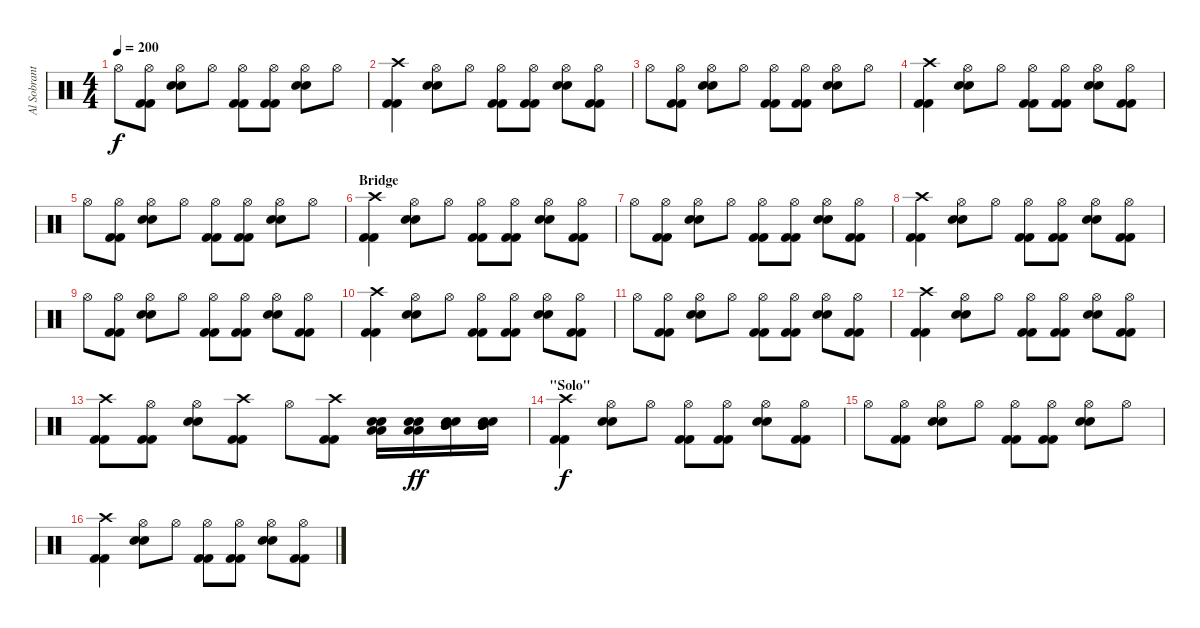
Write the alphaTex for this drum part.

\track ("Al Sobrante (Drums)" "Al Sobrant") {instrument percussion}
\staff {score}
\articulation defaults
\ts (4 4)
\tempo 200
\clef neutral
\ks c "Hi-Hat (open)".8{dy f}
("Kick (hit) 2" "Kick (hit) 2" "Hi-Hat (open)").8 ("Electric Snare (hit)" "Electric Snare (hit)" "Hi-Hat (open)").8 "Hi-Hat (open)".8 ("Kick (hit) 2" "Kick (hit) 2" "Hi-Hat (open)").8 ("Kick (hit) 2" "Kick (hit) 2" "Hi-Hat (open)").8 ("Electric Snare (hit)" "Electric Snare (hit)" "Hi-Hat (open)").8 "Hi-Hat (open)".8 |
("Kick (hit) 2" "Kick (hit) 2" "Crash high (hit)").4 ("Electric Snare (hit)" "Electric Snare (hit)" "Hi-Hat (open)").8 "Hi-Hat (open)".8 ("Kick (hit) 2" "Kick (hit) 2" "Hi-Hat (open)").8 ("Kick (hit) 2" "Kick (hit) 2" "Hi-Hat (open)").8 ("Electric Snare (hit)" "Electric Snare (hit)" "Hi-Hat (open)").8 ("Kick (hit) 2" "Kick (hit) 2" "Hi-Hat (open)").8 |
"Hi-Hat (open)".8 ("Kick (hit) 2" "Kick (hit) 2" "Hi-Hat (open)").8 ("Electric Snare (hit)" "Electric Snare (hit)" "Hi-Hat (open)").8 "Hi-Hat (open)".8 ("Kick (hit) 2" "Kick (hit) 2" "Hi-Hat (open)").8 ("Kick (hit) 2" "Kick (hit) 2" "Hi-Hat (open)").8 ("Electric Snare (hit)" "Electric Snare (hit)" "Hi-Hat (open)").8 "Hi-Hat (open)".8 |
("Kick (hit) 2" "Kick (hit) 2" "Crash high (hit)").4 ("Electric Snare (hit)" "Electric Snare (hit)" "Hi-Hat (open)").8 "Hi-Hat (open)".8 ("Kick (hit) 2" "Kick (hit) 2" "Hi-Hat (open)").8 ("Kick (hit) 2" "Kick (hit) 2" "Hi-Hat (open)").8 ("Electric Snare (hit)" "Electric Snare (hit)" "Hi-Hat (open)").8 ("Kick (hit) 2" "Kick (hit) 2" "Hi-Hat (open)").8 |
"Hi-Hat (open)".8 ("Kick (hit) 2" "Kick (hit) 2" "Hi-Hat (open)").8 ("Electric Snare (hit)" "Electric Snare (hit)" "Hi-Hat (open)").8 "Hi-Hat (open)".8 ("Kick (hit) 2" "Kick (hit) 2" "Hi-Hat (open)").8 ("Kick (hit) 2" "Kick (hit) 2" "Hi-Hat (open)").8 ("Electric Snare (hit)" "Electric Snare (hit)" "Hi-Hat (open)").8 "Hi-Hat (open)".8 |
\section ("" "Bridge")
("Kick (hit) 2" "Kick (hit) 2" "Crash high (hit)").4 ("Electric Snare (hit)" "Electric Snare (hit)" "Hi-Hat (open)").8 "Hi-Hat (open)".8 ("Kick (hit) 2" "Kick (hit) 2" "Hi-Hat (open)").8 ("Kick (hit) 2" "Kick (hit) 2" "Hi-Hat (open)").8 ("Electric Snare (hit)" "Electric Snare (hit)" "Hi-Hat (open)").8 ("Kick (hit) 2" "Kick (hit) 2" "Hi-Hat (open)").8 |
"Hi-Hat (open)".8 ("Kick (hit) 2" "Kick (hit) 2" "Hi-Hat (open)").8 ("Electric Snare (hit)" "Electric Snare (hit)" "Hi-Hat (open)").8 "Hi-Hat (open)".8 ("Kick (hit) 2" "Kick (hit) 2" "Hi-Hat (open)").8 ("Kick (hit) 2" "Kick (hit) 2" "Hi-Hat (open)").8 ("Electric Snare (hit)" "Electric Snare (hit)" "Hi-Hat (open)").8 ("Kick (hit) 2" "Kick (hit) 2" "Hi-Hat (open)").8 |
("Kick (hit) 2" "Kick (hit) 2" "Crash high (hit)").4 ("Electric Snare (hit)" "Electric Snare (hit)" "Hi-Hat (open)").8 "Hi-Hat (open)".8 ("Kick (hit) 2" "Kick (hit) 2" "Hi-Hat (open)").8 ("Kick (hit) 2" "Kick (hit) 2" "Hi-Hat (open)").8 ("Electric Snare (hit)" "Electric Snare (hit)" "Hi-Hat (open)").8 ("Kick (hit) 2" "Kick (hit) 2" "Hi-Hat (open)").8 |
"Hi-Hat (open)".8 ("Kick (hit) 2" "Kick (hit) 2" "Hi-Hat (open)").8 ("Electric Snare (hit)" "Electric Snare (hit)" "Hi-Hat (open)").8 "Hi-Hat (open)".8 ("Kick (hit) 2" "Kick (hit) 2" "Hi-Hat (open)").8 ("Kick (hit) 2" "Kick (hit) 2" "Hi-Hat (open)").8 ("Electric Snare (hit)" "Electric Snare (hit)" "Hi-Hat (open)").8 ("Kick (hit) 2" "Kick (hit) 2" "Hi-Hat (open)").8 |
("Kick (hit) 2" "Kick (hit) 2" "Crash high (hit)").4 ("Electric Snare (hit)" "Electric Snare (hit)" "Hi-Hat (open)").8 "Hi-Hat (open)".8 ("Kick (hit) 2" "Kick (hit) 2" "Hi-Hat (open)").8 ("Kick (hit) 2" "Kick (hit) 2" "Hi-Hat (open)").8 ("Electric Snare (hit)" "Electric Snare (hit)" "Hi-Hat (open)").8 ("Kick (hit) 2" "Kick (hit) 2" "Hi-Hat (open)").8 |
"Hi-Hat (open)".8 ("Kick (hit) 2" "Kick (hit) 2" "Hi-Hat (open)").8 ("Electric Snare (hit)" "Electric Snare (hit)" "Hi-Hat (open)").8 "Hi-Hat (open)".8 ("Kick (hit) 2" "Kick (hit) 2" "Hi-Hat (open)").8 ("Kick (hit) 2" "Kick (hit) 2" "Hi-Hat (open)").8 ("Electric Snare (hit)" "Electric Snare (hit)" "Hi-Hat (open)").8 ("Kick (hit) 2" "Kick (hit) 2" "Hi-Hat (open)").8 |
("Kick (hit) 2" "Kick (hit) 2" "Crash high (hit)").4 ("Electric Snare (hit)" "Electric Snare (hit)" "Hi-Hat (open)").8 "Hi-Hat (open)".8 ("Kick (hit) 2" "Kick (hit) 2" "Hi-Hat (open)").8 ("Kick (hit) 2" "Kick (hit) 2" "Hi-Hat (open)").8 ("Electric Snare (hit)" "Electric Snare (hit)" "Hi-Hat (open)").8 ("Kick (hit) 2" "Kick (hit) 2" "Hi-Hat (open)").8 |
("Kick (hit) 2" "Kick (hit) 2" "Crash high (hit)").8 ("Kick (hit) 2" "Kick (hit) 2" "Hi-Hat (open)").8 ("Electric Snare (hit)" "Electric Snare (hit)" "Hi-Hat (open)").8 ("Kick (hit) 2" "Kick (hit) 2" "Crash high (hit)").8 "Hi-Hat (open)".8 ("Kick (hit) 2" "Kick (hit) 2" "Crash high (hit)").8 ("Electric Snare (hit)" "Electric Snare (hit)" "Low Floor Tom (hit)" "Low Floor Tom (hit)").16 ("Electric Snare (hit)" "Electric Snare (hit)" "Low Floor Tom (hit)" "Low Floor Tom (hit)").16{dy ff} ("Electric Snare (hit)" "Electric Snare (hit)" "Mid Tom (hit)" "Mid Tom (hit)").16 ("Electric Snare (hit)" "Electric Snare (hit)" "Mid Tom (hit)" "Mid Tom (hit)").16 |
\section ("" "\"Solo\"")
("Kick (hit) 2" "Kick (hit) 2" "Crash high (hit)").4{dy f} ("Electric Snare (hit)" "Electric Snare (hit)" "Hi-Hat (open)").8 "Hi-Hat (open)".8 ("Kick (hit) 2" "Kick (hit) 2" "Hi-Hat (open)").8 ("Kick (hit) 2" "Kick (hit) 2" "Hi-Hat (open)").8 ("Electric Snare (hit)" "Electric Snare (hit)" "Hi-Hat (open)").8 ("Kick (hit) 2" "Kick (hit) 2" "Hi-Hat (open)").8 |
"Hi-Hat (open)".8 ("Kick (hit) 2" "Kick (hit) 2" "Hi-Hat (open)").8 ("Electric Snare (hit)" "Electric Snare (hit)" "Hi-Hat (open)").8 "Hi-Hat (open)".8 ("Kick (hit) 2" "Kick (hit) 2" "Hi-Hat (open)").8 ("Kick (hit) 2" "Kick (hit) 2" "Hi-Hat (open)").8 ("Electric Snare (hit)" "Electric Snare (hit)" "Hi-Hat (open)").8 "Hi-Hat (open)".8 |
("Kick (hit) 2" "Kick (hit) 2" "Crash high (hit)").4 ("Electric Snare (hit)" "Electric Snare (hit)" "Hi-Hat (open)").8 "Hi-Hat (open)".8 ("Kick (hit) 2" "Kick (hit) 2" "Hi-Hat (open)").8 ("Kick (hit) 2" "Kick (hit) 2" "Hi-Hat (open)").8 ("Electric Snare (hit)" "Electric Snare (hit)" "Hi-Hat (open)").8 ("Kick (hit) 2" "Kick (hit) 2" "Hi-Hat (open)").8
